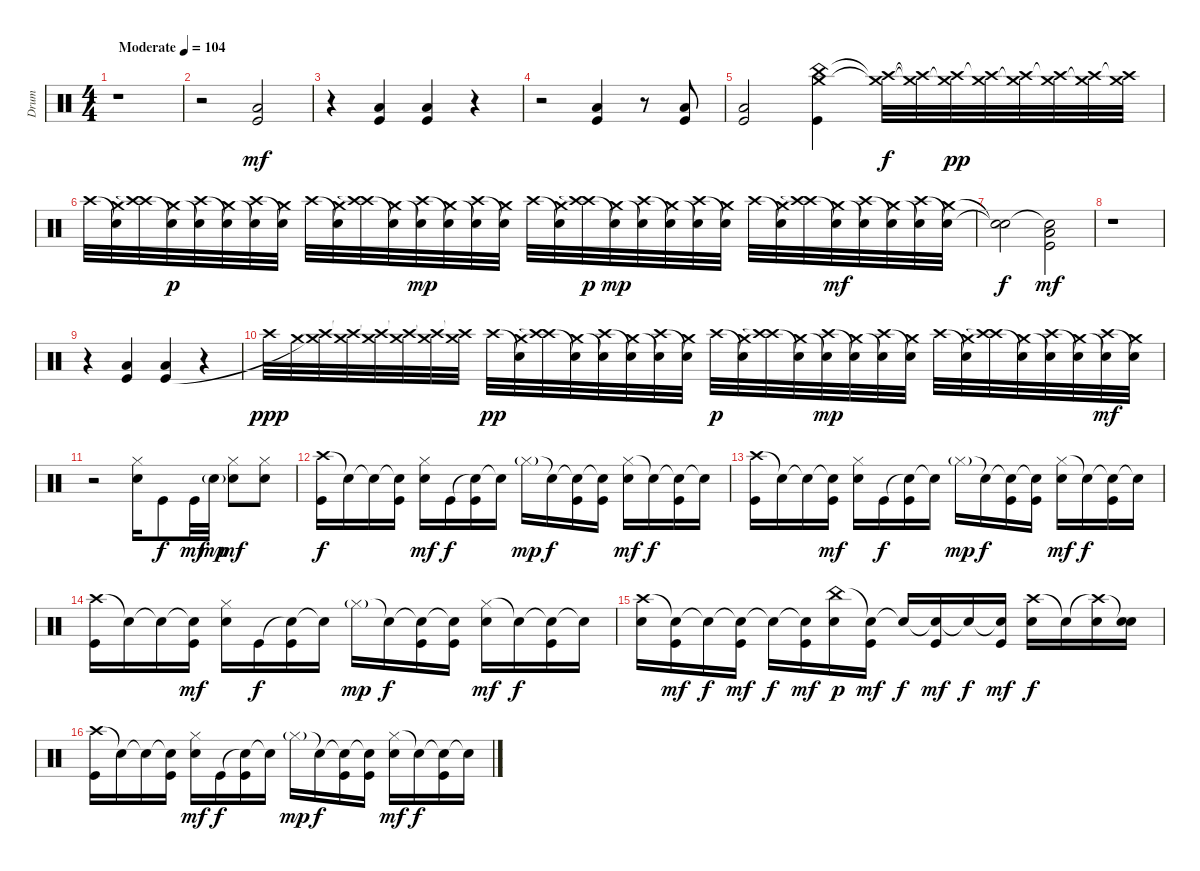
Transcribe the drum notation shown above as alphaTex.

\track ("Drum" "Drum") {instrument percussion}
\staff {score}
\articulation defaults
\ts (4 4)
\tempo (104 "Moderate")
\clef neutral
\ks c
r.1{dy mf} |
r.2 ("Low Floor Tom (hit)" "Kick (hit)").2 |
r.4 ("Low Floor Tom (hit)" "Kick (hit)").4 ("Low Floor Tom (hit)" "Kick (hit)").4 r.4 |
r.2 ("Low Floor Tom (hit)" "Kick (hit)").4 r.8 ("Low Floor Tom (hit)" "Kick (hit)").8 |
("Low Floor Tom (hit)" "Kick (hit)").2 ("China (hit)" "Crash medium (hit)" "Kick (hit)").4 ("Crash high (hit)"{t} "Crash medium (hit)"{t}).32{dy f} ("Crash high (hit)"{t} "Crash medium (hit)"{t}).32 ("Crash high (hit)" "Crash medium (hit)"{t}).32{dy pp} ("Crash high (hit)"{t} "Crash medium (hit)").32 ("Crash high (hit)" "Crash medium (hit)"{t}).32 ("Crash high (hit)"{t} "Crash medium (hit)").32 ("Crash high (hit)" "Crash medium (hit)"{t}).32 ("Crash high (hit)"{t} "Crash medium (hit)").32 |
"Crash high (hit)".32 ("Snare (hit)"{t} "Crash medium (hit)").32 ("Crash high (hit)" "Crash high (hit)"{t}).32 ("Snare (hit)"{t} "Crash medium (hit)").32{dy p} ("Crash high (hit)" "Snare (hit)"{t}).32 ("Snare (hit)"{t} "Crash medium (hit)").32 ("Crash high (hit)" "Snare (hit)"{t}).32 ("Snare (hit)"{t} "Crash medium (hit)").32 "Crash high (hit)".32 ("Snare (hit)"{t} "Crash medium (hit)").32 ("Crash high (hit)" "Crash high (hit)"{t}).32 ("Snare (hit)"{t} "Crash medium (hit)").32 ("Crash high (hit)" "Snare (hit)"{t}).32{dy mp} ("Snare (hit)"{t} "Crash medium (hit)").32 ("Crash high (hit)" "Snare (hit)"{t}).32 ("Snare (hit)"{t} "Crash medium (hit)").32 "Crash high (hit)".32 ("Snare (hit)"{t} "Crash medium (hit)").32 ("Crash high (hit)" "Crash high (hit)"{t}).32{dy p} ("Snare (hit)"{t} "Crash medium (hit)").32{dy mp} ("Crash high (hit)" "Snare (hit)"{t}).32 ("Snare (hit)"{t} "Crash medium (hit)").32 ("Crash high (hit)" "Snare (hit)"{t}).32 ("Snare (hit)"{t} "Crash medium (hit)").32 "Crash high (hit)".32 ("Snare (hit)"{t} "Crash medium (hit)").32 ("Crash high (hit)" "Crash high (hit)"{t}).32 ("Snare (hit)"{t} "Crash medium (hit)").32{dy mf} ("Crash high (hit)" "Snare (hit)"{t}).32 ("Snare (hit)"{t} "Crash medium (hit)").32 ("Crash high (hit)" "Snare (hit)"{t}).32 ("Snare (hit)"{t} "Crash medium (hit)").32 |
("Snare (hit)"{t} "Snare (hit)"{t}).2{dy f} ("Snare (hit)"{t} "Low Floor Tom (hit)" "Kick (hit)").2{dy mf} |
r.1 |
r.4 ("Low Floor Tom (hit)" "Kick (hit)").4 ("Low Floor Tom (hit)" "Kick (hit)").4 r.4 |
"Crash high (hit)".32{dy ppp} "Crash medium (hit)".32 ("Crash high (hit)" "Crash medium (hit)"{t}).32 ("Crash high (hit)"{t} "Crash medium (hit)").32 ("Crash high (hit)" "Crash medium (hit)"{t}).32 ("Crash high (hit)"{t} "Crash medium (hit)").32 ("Crash high (hit)" "Crash medium (hit)"{t}).32 ("Crash high (hit)"{t} "Crash medium (hit)").32 "Crash high (hit)".32{dy pp} ("Snare (hit)"{t} "Crash medium (hit)").32 ("Crash high (hit)" "Crash high (hit)"{t}).32 ("Snare (hit)"{t} "Crash medium (hit)").32 ("Crash high (hit)" "Snare (hit)"{t}).32 ("Snare (hit)"{t} "Crash medium (hit)").32 ("Crash high (hit)" "Snare (hit)"{t}).32 ("Snare (hit)"{t} "Crash medium (hit)").32 "Crash high (hit)".32{dy p} ("Snare (hit)"{t} "Crash medium (hit)").32 ("Crash high (hit)" "Crash high (hit)"{t}).32 ("Snare (hit)"{t} "Crash medium (hit)").32 ("Crash high (hit)" "Snare (hit)"{t}).32{dy mp} ("Snare (hit)"{t} "Crash medium (hit)").32 ("Crash high (hit)" "Snare (hit)"{t}).32 ("Snare (hit)"{t} "Crash medium (hit)").32 "Crash high (hit)".32 ("Snare (hit)"{t} "Crash medium (hit)").32 ("Crash high (hit)" "Crash high (hit)"{t}).32 ("Snare (hit)"{t} "Crash medium (hit)").32 ("Crash high (hit)" "Snare (hit)"{t}).32 ("Snare (hit)"{t} "Crash medium (hit)").32 ("Crash high (hit)" "Snare (hit)"{t}).32{dy mf} ("Snare (hit)"{t} "Crash medium (hit)").32 |
r.2 ("Hi-Hat (closed)" "Snare (hit) 2").16 "Kick (hit)".8{dy f} "Kick (hit)".32{dy mf} "Snare (hit) 2"{g}.32{dy mp} ("Hi-Hat (closed)" "Snare (hit) 2").8{dy mf} ("Hi-Hat (closed)" "Snare (hit) 2").8 |
("Crash high (hit)" "Kick (hit)").16{dy f} "Snare (hit)"{t}.16 "Snare (hit)"{t}.16 ("Snare (hit)"{t} "Kick (hit)").16 ("Hi-Hat (closed)" "Snare (hit) 2").16{dy mf} "Kick (hit)".16{dy f} ("Snare (hit)"{t} "Kick (hit)").16 "Snare (hit)"{t}.16 "Hi-Hat (closed)"{g}.16{dy mp} "Snare (hit)"{t}.16{dy f} ("Snare (hit)"{t} "Kick (hit)").16 ("Snare (hit)"{t} "Kick (hit)").16 ("Hi-Hat (closed)" "Snare (hit) 2").16{dy mf} "Snare (hit)"{t}.16{dy f} ("Snare (hit)"{t} "Kick (hit)").16 "Snare (hit)"{t}.16 |
("Crash high (hit)" "Kick (hit)").16 "Snare (hit)"{t}.16 "Snare (hit)"{t}.16 ("Snare (hit)"{t} "Kick (hit)").16{dy mf} ("Hi-Hat (closed)" "Snare (hit) 2").16 "Kick (hit)".16{dy f} ("Snare (hit)"{t} "Kick (hit)").16 "Snare (hit)"{t}.16 "Hi-Hat (closed)"{g}.16{dy mp} "Snare (hit)"{t}.16{dy f} ("Snare (hit)"{t} "Kick (hit)").16 ("Snare (hit)"{t} "Kick (hit)").16 ("Hi-Hat (closed)" "Snare (hit) 2").16{dy mf} "Snare (hit)"{t}.16{dy f} ("Snare (hit)"{t} "Kick (hit)").16 "Snare (hit)"{t}.16 |
("Crash high (hit)" "Kick (hit)").16 "Snare (hit)"{t}.16 "Snare (hit)"{t}.16 ("Snare (hit)"{t} "Kick (hit)").16{dy mf} ("Hi-Hat (closed)" "Snare (hit) 2").16 "Kick (hit)".16{dy f} ("Snare (hit)"{t} "Kick (hit)").16 "Snare (hit)"{t}.16 "Hi-Hat (closed)"{g}.16{dy mp} "Snare (hit)"{t}.16{dy f} ("Snare (hit)"{t} "Kick (hit)").16 ("Snare (hit)"{t} "Kick (hit)").16 ("Hi-Hat (closed)" "Snare (hit) 2").16{dy mf} "Snare (hit)"{t}.16{dy f} ("Snare (hit)"{t} "Kick (hit)").16 "Snare (hit)"{t}.16 |
("Crash high (hit)" "Snare (hit) 2").16 ("Snare (hit)"{t} "Kick (hit)").16{dy mf} "Snare (hit)"{t}.16{dy f} ("Snare (hit)"{t} "Kick (hit)").16{dy mf} "Snare (hit)"{t}.16{dy f} ("Snare (hit)"{t} "Kick (hit)").16{dy mf} ("China (hit)" "Snare (hit) 2").16{dy p} ("Snare (hit)"{t} "Kick (hit)").16{dy mf} "Snare (hit)"{t}.16{dy f} ("Snare (hit)"{t} "Kick (hit)").16{dy mf} "Snare (hit)"{t}.16{dy f} ("Snare (hit)"{t} "Kick (hit)").16{dy mf} ("Crash high (hit)" "Snare (hit) 2").16{dy f} "Snare (hit)"{t}.16 ("Crash high (hit)"{t} "Snare (hit) 2").16 ("Snare (hit)"{t} "Snare (hit) 2").16 |
("Crash high (hit)" "Kick (hit)").16 "Snare (hit)"{t}.16 "Snare (hit)"{t}.16 ("Snare (hit)"{t} "Kick (hit)").16 ("Hi-Hat (closed)" "Snare (hit) 2").16{dy mf} "Kick (hit)".16{dy f} ("Snare (hit)"{t} "Kick (hit)").16 "Snare (hit)"{t}.16 "Hi-Hat (closed)"{g}.16{dy mp} "Snare (hit)"{t}.16{dy f} ("Snare (hit)"{t} "Kick (hit)").16 ("Snare (hit)"{t} "Kick (hit)").16 ("Hi-Hat (closed)" "Snare (hit) 2").16{dy mf} "Snare (hit)"{t}.16{dy f} ("Snare (hit)"{t} "Kick (hit)").16 "Snare (hit)"{t}.16
